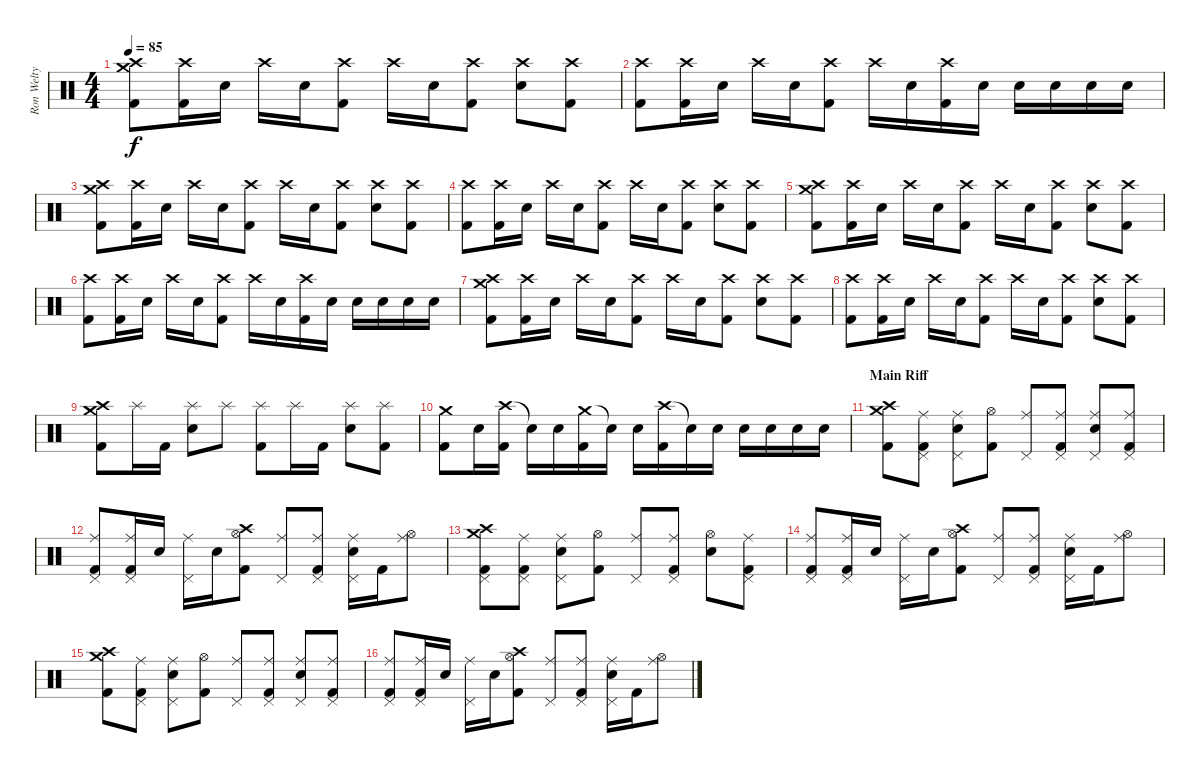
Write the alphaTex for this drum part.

\track ("Ron Welty - Drums" "Ron Welty ") {instrument percussion}
\staff {score}
\articulation defaults
\ts (4 4)
\tempo 85
\clef neutral
\ks c
("Crash high (hit)" "Crash medium (hit)" "Kick (hit) 2").8{dy f} ("Crash high (hit)" "Kick (hit) 2").16 "Snare (hit) 2".16 "Crash high (hit)".16 "Snare (hit) 2".16 ("Crash high (hit)" "Kick (hit) 2").8 "Crash high (hit)".16 "Snare (hit) 2".16 ("Crash high (hit)" "Kick (hit) 2").8 ("Crash high (hit)" "Snare (hit) 2").8 ("Crash high (hit)" "Kick (hit) 2").8 |
("Crash high (hit)" "Kick (hit) 2").8 ("Crash high (hit)" "Kick (hit) 2").16 "Snare (hit) 2".16 "Crash high (hit)".16 "Snare (hit) 2".16 ("Crash high (hit)" "Kick (hit) 2").8 "Crash high (hit)".16 "Snare (hit) 2".16 ("Crash high (hit)" "Kick (hit) 2").16 "Snare (hit) 2".16 "Snare (hit) 2".16 "Snare (hit) 2".16 "Snare (hit) 2".16 "Snare (hit) 2".16 |
("Crash high (hit)" "Crash medium (hit)" "Kick (hit) 2").8 ("Crash high (hit)" "Kick (hit) 2").16 "Snare (hit) 2".16 "Crash high (hit)".16 "Snare (hit) 2".16 ("Crash high (hit)" "Kick (hit) 2").8 "Crash high (hit)".16 "Snare (hit) 2".16 ("Crash high (hit)" "Kick (hit) 2").8 ("Crash high (hit)" "Snare (hit) 2").8 ("Crash high (hit)" "Kick (hit) 2").8 |
("Crash high (hit)" "Kick (hit) 2").8 ("Crash high (hit)" "Kick (hit) 2").16 "Snare (hit) 2".16 "Crash high (hit)".16 "Snare (hit) 2".16 ("Crash high (hit)" "Kick (hit) 2").8 "Crash high (hit)".16 "Snare (hit) 2".16 ("Crash high (hit)" "Kick (hit) 2").8 ("Crash high (hit)" "Snare (hit) 2").8 ("Crash high (hit)" "Kick (hit) 2").8 |
("Crash high (hit)" "Crash medium (hit)" "Kick (hit) 2").8 ("Crash high (hit)" "Kick (hit) 2").16 "Snare (hit) 2".16 "Crash high (hit)".16 "Snare (hit) 2".16 ("Crash high (hit)" "Kick (hit) 2").8 "Crash high (hit)".16 "Snare (hit) 2".16 ("Crash high (hit)" "Kick (hit) 2").8 ("Crash high (hit)" "Snare (hit) 2").8 ("Crash high (hit)" "Kick (hit) 2").8 |
("Crash high (hit)" "Kick (hit) 2").8 ("Crash high (hit)" "Kick (hit) 2").16 "Snare (hit) 2".16 "Crash high (hit)".16 "Snare (hit) 2".16 ("Crash high (hit)" "Kick (hit) 2").8 "Crash high (hit)".16 "Snare (hit) 2".16 ("Crash high (hit)" "Kick (hit) 2").16 "Snare (hit) 2".16 "Snare (hit) 2".16 "Snare (hit) 2".16 "Snare (hit) 2".16 "Snare (hit) 2".16 |
("Crash high (hit)" "Crash medium (hit)" "Kick (hit) 2").8 ("Crash high (hit)" "Kick (hit) 2").16 "Snare (hit) 2".16 "Crash high (hit)".16 "Snare (hit) 2".16 ("Crash high (hit)" "Kick (hit) 2").8 "Crash high (hit)".16 "Snare (hit) 2".16 ("Crash high (hit)" "Kick (hit) 2").8 ("Crash high (hit)" "Snare (hit) 2").8 ("Crash high (hit)" "Kick (hit) 2").8 |
("Crash high (hit)" "Kick (hit) 2").8 ("Crash high (hit)" "Kick (hit) 2").16 "Snare (hit) 2".16 "Crash high (hit)".16 "Snare (hit) 2".16 ("Crash high (hit)" "Kick (hit) 2").8 "Crash high (hit)".16 "Snare (hit) 2".16 ("Crash high (hit)" "Kick (hit) 2").8 ("Crash high (hit)" "Snare (hit) 2").8 ("Crash high (hit)" "Kick (hit) 2").8 |
("Crash high (hit)" "Crash medium (hit)" "Kick (hit) 2").8 "Splash (hit)".16 "Kick (hit) 2".16 ("Splash (hit)" "Snare (hit) 2").8 "Splash (hit)".8 ("Splash (hit)" "Kick (hit) 2").8 "Splash (hit)".16 "Kick (hit) 2".16 ("Splash (hit)" "Snare (hit) 2").8 ("Splash (hit)" "Kick (hit) 2").8 |
("Crash medium (hit)" "Kick (hit) 2").8 "Snare (hit) 2".16 ("Crash high (hit)" "Kick (hit) 2").16 "Snare (hit)"{t}.16 "Snare (hit) 2".16 ("Crash medium (hit)" "Kick (hit) 2").16 "Snare (hit)"{t}.16 "Snare (hit) 2".16 ("Crash high (hit)" "Kick (hit) 2").16 "Snare (hit)"{t}.16 "Snare (hit) 2".16 "Snare (hit) 2".16 "Snare (hit) 2".16 "Snare (hit) 2".16 "Snare (hit) 2".16 |
\section ("" "Main Riff")
("Crash medium (hit)" "Crash high (hit)" "Kick (hit) 2").8 ("Ride (middle)" "Pedal Hi-Hat (hit)" "Kick (hit) 2").8 ("Ride (middle)" "Pedal Hi-Hat (hit)" "Snare (hit) 2").8 ("Hi-Hat (open)" "Kick (hit) 2").8 ("Ride (middle)" "Pedal Hi-Hat (hit)").8 ("Ride (middle)" "Pedal Hi-Hat (hit)" "Kick (hit) 2").8 ("Ride (middle)" "Pedal Hi-Hat (hit)" "Snare (hit) 2").8 ("Ride (middle)" "Pedal Hi-Hat (hit)" "Kick (hit) 2").8 |
("Ride (middle)" "Pedal Hi-Hat (hit)" "Kick (hit) 2").8 ("Ride (middle)" "Pedal Hi-Hat (hit)" "Kick (hit) 2").16 "Snare (hit) 2".16 ("Ride (middle)" "Pedal Hi-Hat (hit)").16 "Snare (hit) 2".16 ("Crash high (hit)" "Hi-Hat (open)" "Kick (hit) 2").8 ("Ride (middle)" "Pedal Hi-Hat (hit)").8 ("Ride (middle)" "Pedal Hi-Hat (hit)" "Kick (hit) 2").8 ("Ride (middle)" "Pedal Hi-Hat (hit)" "Snare (hit) 2").16 "Kick (hit) 2".16 ("Ride (middle)" "Hi-Hat (open)").8 |
("Crash medium (hit)" "Crash high (hit)" "Pedal Hi-Hat (hit)" "Kick (hit) 2").8 ("Ride (middle)" "Pedal Hi-Hat (hit)" "Kick (hit) 2").8 ("Ride (middle)" "Pedal Hi-Hat (hit)" "Snare (hit) 2").8 ("Hi-Hat (open)" "Kick (hit) 2").8 ("Ride (middle)" "Pedal Hi-Hat (hit)").8 ("Ride (middle)" "Pedal Hi-Hat (hit)" "Kick (hit) 2").8 ("Hi-Hat (open)" "Snare (hit) 2").8 ("Ride (middle)" "Pedal Hi-Hat (hit)" "Kick (hit) 2").8 |
("Ride (middle)" "Pedal Hi-Hat (hit)" "Kick (hit) 2").8 ("Ride (middle)" "Pedal Hi-Hat (hit)" "Kick (hit) 2").16 "Snare (hit) 2".16 ("Ride (middle)" "Pedal Hi-Hat (hit)").16 "Snare (hit) 2".16 ("Crash high (hit)" "Hi-Hat (open)" "Kick (hit) 2").8 ("Ride (middle)" "Pedal Hi-Hat (hit)").8 ("Ride (middle)" "Pedal Hi-Hat (hit)" "Kick (hit) 2").8 ("Ride (middle)" "Pedal Hi-Hat (hit)" "Snare (hit) 2").16 "Kick (hit) 2".16 ("Ride (middle)" "Hi-Hat (open)").8 |
("Crash medium (hit)" "Crash high (hit)" "Kick (hit) 2").8 ("Ride (middle)" "Pedal Hi-Hat (hit)" "Kick (hit) 2").8 ("Ride (middle)" "Pedal Hi-Hat (hit)" "Snare (hit) 2").8 ("Hi-Hat (open)" "Kick (hit) 2").8 ("Ride (middle)" "Pedal Hi-Hat (hit)").8 ("Ride (middle)" "Pedal Hi-Hat (hit)" "Kick (hit) 2").8 ("Ride (middle)" "Pedal Hi-Hat (hit)" "Snare (hit) 2").8 ("Ride (middle)" "Pedal Hi-Hat (hit)" "Kick (hit) 2").8 |
("Ride (middle)" "Pedal Hi-Hat (hit)" "Kick (hit) 2").8 ("Ride (middle)" "Pedal Hi-Hat (hit)" "Kick (hit) 2").16 "Snare (hit) 2".16 ("Ride (middle)" "Pedal Hi-Hat (hit)").16 "Snare (hit) 2".16 ("Crash high (hit)" "Hi-Hat (open)" "Kick (hit) 2").8 ("Ride (middle)" "Pedal Hi-Hat (hit)").8 ("Ride (middle)" "Pedal Hi-Hat (hit)" "Kick (hit) 2").8 ("Ride (middle)" "Pedal Hi-Hat (hit)" "Snare (hit) 2").16 "Kick (hit) 2".16 ("Ride (middle)" "Hi-Hat (open)").8
